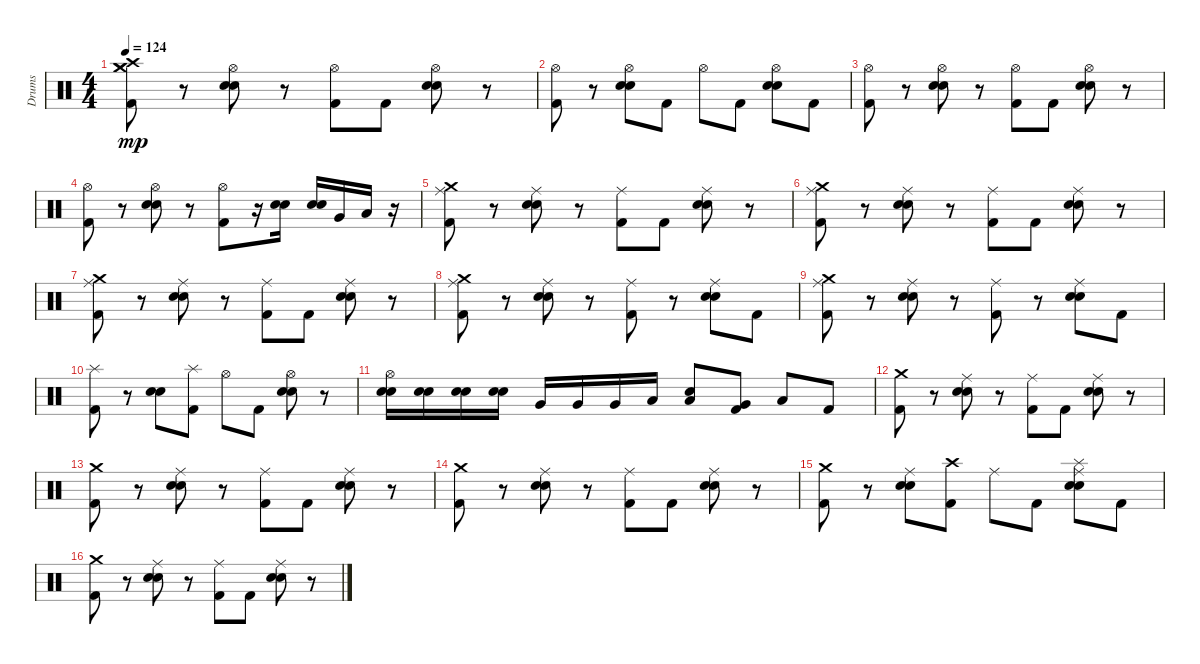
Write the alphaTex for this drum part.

\track ("Drums" "Drums") {instrument percussion}
\staff {score}
\articulation defaults
\ts (4 4)
\tempo 124
\clef neutral
\ks c
("Crash medium (hit)" "Crash high (hit)" "Kick (hit) 2" "Crash medium (hit)").8{dy mp} r.8 ("Snare (hit) 2" "Electric Snare (hit)" "Hi-Hat (open)").8 r.8 ("Hi-Hat (open)" "Kick (hit) 2").8 "Kick (hit) 2".8 ("Electric Snare (hit)" "Hi-Hat (open)" "Snare (hit) 2").8 r.8 |
("Hi-Hat (open)" "Kick (hit) 2").8 r.8 ("Hi-Hat (open)" "Electric Snare (hit)" "Snare (hit) 2").8 "Kick (hit) 2".8 "Hi-Hat (open)".8 "Kick (hit) 2".8 ("Hi-Hat (open)" "Snare (hit) 2" "Electric Snare (hit)").8 "Kick (hit) 2".8 |
("Hi-Hat (open)" "Kick (hit) 2").8 r.8 ("Hi-Hat (open)" "Snare (hit) 2" "Electric Snare (hit)").8 r.8 ("Hi-Hat (open)" "Kick (hit) 2").8 "Kick (hit) 2".8 ("Hi-Hat (open)" "Snare (hit) 2" "Electric Snare (hit)").8 r.8 |
("Hi-Hat (open)" "Kick (hit) 2").8 r.8 ("Hi-Hat (open)" "Snare (hit) 2" "Electric Snare (hit)").8 r.8 ("Kick (hit) 2" "Hi-Hat (open)").8 r.16 ("Electric Snare (hit)" "Snare (hit) 2").16 ("Electric Snare (hit)" "Snare (hit) 2").16 "Very Low Tom (hit)".16 "Low Floor Tom (hit)".16 r.16 |
("Kick (hit) 2" "Ride (middle)" "Crash medium (hit)").8 r.8 ("Snare (hit) 2" "Electric Snare (hit)" "Ride (middle)").8 r.8 ("Ride (middle)" "Kick (hit) 2").8 "Kick (hit) 2".8 ("Ride (middle)" "Snare (hit) 2" "Electric Snare (hit)").8 r.8 |
("Crash medium (hit)" "Ride (middle)" "Kick (hit) 2").8 r.8 ("Ride (middle)" "Snare (hit) 2" "Electric Snare (hit)").8 r.8 ("Kick (hit) 2" "Ride (middle)").8 "Kick (hit) 2".8 ("Ride (middle)" "Snare (hit) 2" "Electric Snare (hit)").8 r.8 |
("Crash medium (hit)" "Kick (hit) 2" "Ride (middle)").8 r.8 ("Electric Snare (hit)" "Snare (hit) 2" "Ride (middle)").8 r.8 ("Kick (hit) 2" "Ride (middle)").8 "Kick (hit) 2".8 ("Electric Snare (hit)" "Ride (middle)" "Snare (hit) 2").8 r.8 |
("Crash medium (hit)" "Ride (middle)" "Kick (hit) 2").8 r.8 ("Electric Snare (hit)" "Snare (hit) 2" "Ride (middle)").8 r.8 ("Kick (hit) 2" "Ride (middle)").8 r.8 ("Ride (middle)" "Snare (hit) 2" "Electric Snare (hit)").8 "Kick (hit) 2".8 |
("Kick (hit) 2" "Crash medium (hit)" "Ride (middle)").8 r.8 ("Snare (hit) 2" "Electric Snare (hit)" "Ride (middle)").8 r.8 ("Ride (middle)" "Kick (hit) 2").8 r.8 ("Snare (hit) 2" "Electric Snare (hit)" "Ride (middle)").8 "Kick (hit) 2".8 |
("Kick (hit) 2" "Splash (hit)").8 r.8 ("Snare (hit) 2" "Electric Snare (hit)").8 ("Kick (hit) 2" "Splash (hit)").8 "Hi-Hat (open)".8 "Kick (hit) 2".8 ("Hi-Hat (open)" "Electric Snare (hit)" "Snare (hit) 2").8 r.8 |
("Hi-Hat (open)" "Electric Snare (hit)" "Snare (hit) 2").16 ("Snare (hit) 2" "Electric Snare (hit)").16 ("Electric Snare (hit)" "Snare (hit) 2").16 ("Snare (hit) 2" "Electric Snare (hit)").16 "Very Low Tom (hit)".16 "Very Low Tom (hit)".16 "Very Low Tom (hit)".16 "Low Floor Tom (hit)".16 ("Low Tom (hit)" "Electric Snare (hit)").8 ("Very Low Tom (hit)" "Kick (hit) 2").8 "Low Floor Tom (hit)".8 "Kick (hit) 2".8 |
("Crash medium (hit)" "Kick (hit) 2").8 r.8 ("Electric Snare (hit)" "Snare (hit) 2" "Ride (middle)").8 r.8 ("Ride (middle)" "Kick (hit) 2").8 "Kick (hit) 2".8 ("Snare (hit) 2" "Electric Snare (hit)" "Ride (middle)").8 r.8 |
("Crash medium (hit)" "Kick (hit) 2").8 r.8 ("Ride (middle)" "Electric Snare (hit)" "Snare (hit) 2").8 r.8 ("Ride (middle)" "Kick (hit) 2").8 "Kick (hit) 2".8 ("Snare (hit) 2" "Ride (middle)" "Electric Snare (hit)").8 r.8 |
("Kick (hit) 2" "Crash medium (hit)").8 r.8 ("Ride (middle)" "Snare (hit) 2" "Electric Snare (hit)").8 r.8 ("Ride (middle)" "Kick (hit) 2").8 "Kick (hit) 2".8 ("Ride (middle)" "Snare (hit) 2" "Electric Snare (hit)").8 r.8 |
("Crash medium (hit)" "Kick (hit) 2").8 r.8 ("Ride (middle)" "Snare (hit) 2" "Electric Snare (hit)").8 ("Crash high (hit)" "Kick (hit) 2").8 "Ride (middle)".8 "Kick (hit) 2".8 ("Snare (hit) 2" "Electric Snare (hit)" "Ride (middle)" "Splash (hit)").8 "Kick (hit) 2".8 |
("Crash medium (hit)" "Kick (hit) 2").8 r.8 ("Electric Snare (hit)" "Ride (middle)" "Snare (hit) 2").8 r.8 ("Kick (hit) 2" "Ride (middle)").8 "Kick (hit) 2".8 ("Snare (hit) 2" "Electric Snare (hit)" "Ride (middle)").8 r.8
